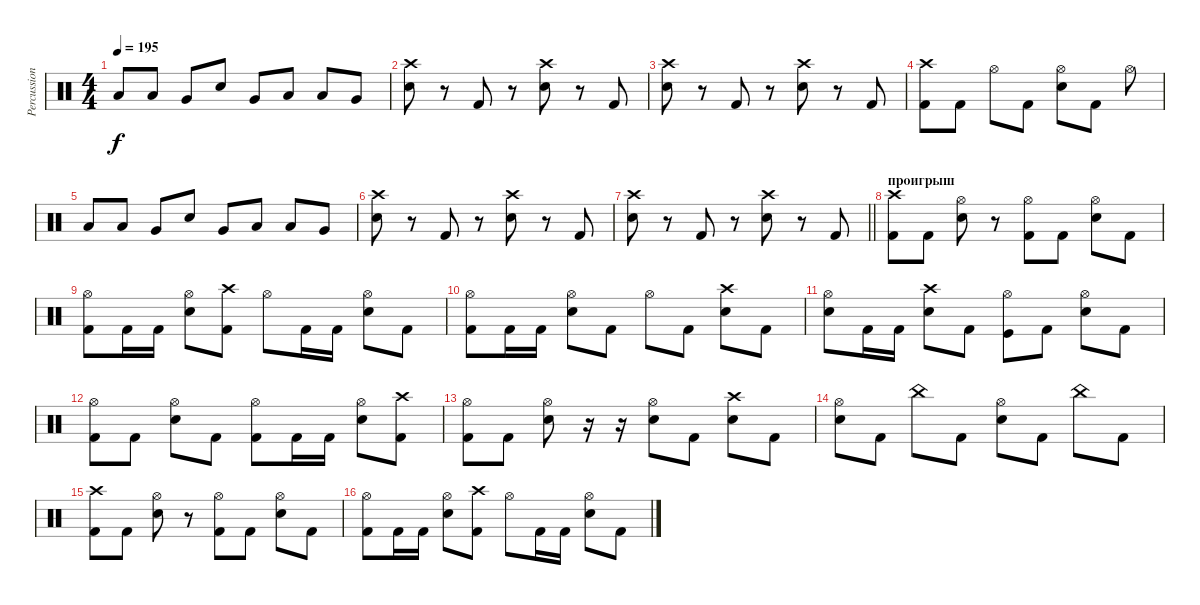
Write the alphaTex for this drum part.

\track ("Percussions" "Percussion") {instrument percussion}
\staff {score}
\articulation defaults
\ts (4 4)
\tempo 195
\clef neutral
\ks c "Low Floor Tom (hit)".8{dy f} "Low Floor Tom (hit)".8 "Very Low Tom (hit)".8 "Electric Snare (hit)".8 "Very Low Tom (hit)".8 "Low Floor Tom (hit)".8 "Low Floor Tom (hit)".8 "Very Low Tom (hit)".8
|
("Crash high (hit)" "Electric Snare (hit)").8 r.8 "Kick (hit) 2".8 r.8 ("Crash high (hit)" "Electric Snare (hit)").8 r.8 "Kick (hit) 2".8 |
("Crash high (hit)" "Electric Snare (hit)").8 r.8 "Kick (hit) 2".8 r.8 ("Crash high (hit)" "Electric Snare (hit)").8 r.8 "Kick (hit) 2".8 |
("Crash high (hit)" "Kick (hit) 2").8 "Kick (hit) 2".8 "Hi-Hat (open)".8 "Kick (hit) 2".8 ("Hi-Hat (open)" "Electric Snare (hit)").8 "Kick (hit) 2".8 "Hi-Hat (open)".8 |
"Low Floor Tom (hit)".8 "Low Floor Tom (hit)".8 "Very Low Tom (hit)".8 "Electric Snare (hit)".8 "Very Low Tom (hit)".8 "Low Floor Tom (hit)".8 "Low Floor Tom (hit)".8 "Very Low Tom (hit)".8 |
("Crash high (hit)" "Electric Snare (hit)").8 r.8 "Kick (hit) 2".8 r.8 ("Crash high (hit)" "Electric Snare (hit)").8 r.8 "Kick (hit) 2".8 |
\barLineRight lightlight
("Crash high (hit)" "Electric Snare (hit)").8 r.8 "Kick (hit) 2".8 r.8 ("Crash high (hit)" "Electric Snare (hit)").8 r.8 "Kick (hit) 2".8 |
\section ("" "проигрыш")
("Crash high (hit)" "Kick (hit) 2").8 "Kick (hit) 2".8 ("Hi-Hat (open)" "Electric Snare (hit)").8 r.8 ("Hi-Hat (open)" "Kick (hit) 2").8 "Kick (hit) 2".8 ("Hi-Hat (open)" "Electric Snare (hit)").8 "Kick (hit) 2".8 |
("Hi-Hat (open)" "Kick (hit) 2").8 "Kick (hit) 2".16 "Kick (hit) 2".16 ("Hi-Hat (open)" "Electric Snare (hit)").8 ("Crash high (hit)" "Kick (hit) 2").8 "Hi-Hat (open)".8 "Kick (hit) 2".16 "Kick (hit) 2".16 ("Hi-Hat (open)" "Electric Snare (hit)").8 "Kick (hit) 2".8 |
("Hi-Hat (open)" "Kick (hit) 2").8 "Kick (hit) 2".16 "Kick (hit) 2".16 ("Hi-Hat (open)" "Electric Snare (hit)").8 "Kick (hit) 2".8 "Hi-Hat (open)".8 "Kick (hit) 2".8 ("Crash high (hit)" "Electric Snare (hit)").8 "Kick (hit) 2".8 |
("Hi-Hat (open)" "Electric Snare (hit)").8 "Kick (hit) 2".16 "Kick (hit) 2".16 ("Crash high (hit)" "Electric Snare (hit)").8 "Kick (hit) 2".8 ("Hi-Hat (open)" "Kick (hit)").8 "Kick (hit) 2".8 ("Hi-Hat (open)" "Electric Snare (hit)").8 "Kick (hit) 2".8 |
("Hi-Hat (open)" "Kick (hit) 2").8 "Kick (hit) 2".8 ("Hi-Hat (open)" "Electric Snare (hit)").8 "Kick (hit) 2".8 ("Hi-Hat (open)" "Kick (hit) 2").8 "Kick (hit) 2".16 "Kick (hit) 2".16 ("Hi-Hat (open)" "Electric Snare (hit)").8 ("Crash high (hit)" "Kick (hit) 2").8 |
("Hi-Hat (open)" "Kick (hit) 2").8 "Kick (hit) 2".8 ("Hi-Hat (open)" "Electric Snare (hit)").8 r.16 r.16 ("Hi-Hat (open)" "Electric Snare (hit)").8 "Kick (hit) 2".8 ("Crash high (hit)" "Electric Snare (hit)").8 "Kick (hit) 2".8 |
("Hi-Hat (open)" "Electric Snare (hit)").8 "Kick (hit) 2".8 "China (hit)".8 "Kick (hit) 2".8 ("Hi-Hat (open)" "Electric Snare (hit)").8 "Kick (hit) 2".8 "China (hit)".8 "Kick (hit) 2".8 |
("Crash high (hit)" "Kick (hit) 2").8 "Kick (hit) 2".8 ("Hi-Hat (open)" "Electric Snare (hit)").8 r.8 ("Hi-Hat (open)" "Kick (hit) 2").8 "Kick (hit) 2".8 ("Hi-Hat (open)" "Electric Snare (hit)").8 "Kick (hit) 2".8 |
("Hi-Hat (open)" "Kick (hit) 2").8 "Kick (hit) 2".16 "Kick (hit) 2".16 ("Hi-Hat (open)" "Electric Snare (hit)").8 ("Crash high (hit)" "Kick (hit) 2").8 "Hi-Hat (open)".8 "Kick (hit) 2".16 "Kick (hit) 2".16 ("Hi-Hat (open)" "Electric Snare (hit)").8 "Kick (hit) 2".8
